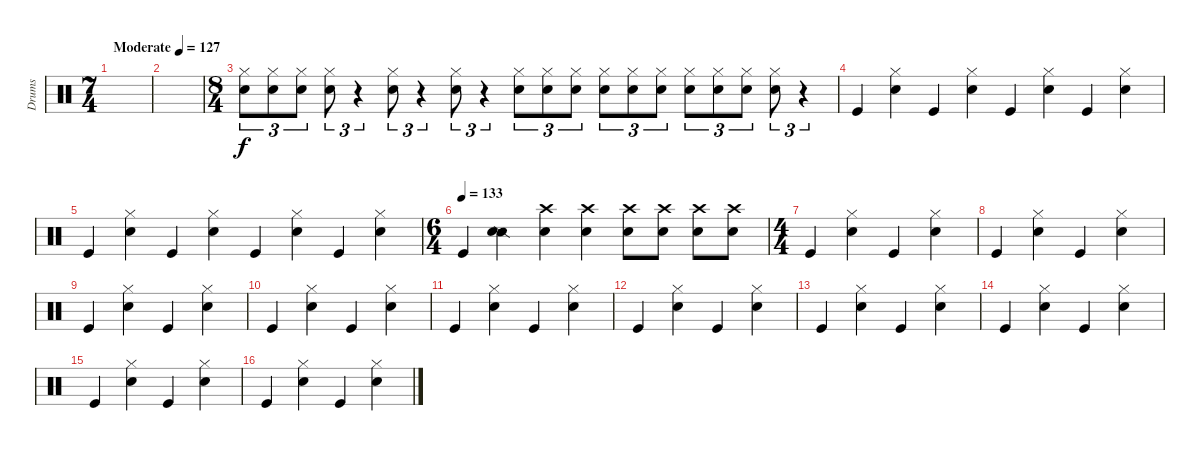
\track ("Drums" "Drums") {instrument percussion}
\staff {score}
\articulation defaults
\ts (7 4)
\tempo (127 "Moderate")
\clef neutral
\ks c
|
|
\ts (8 4)
("Hi-Hat (closed)" "Snare (hit) 2").8{tu (3 2)} ("Hi-Hat (closed)" "Snare (hit) 2").8{tu (3 2)} ("Hi-Hat (closed)" "Snare (hit) 2").8{tu (3 2)} ("Hi-Hat (closed)" "Snare (hit) 2").8{tu (3 2)} r.4{tu (3 2)} ("Hi-Hat (closed)" "Snare (hit) 2").8{tu (3 2)} r.4{tu (3 2)} ("Hi-Hat (closed)" "Snare (hit) 2").8{tu (3 2)} r.4{tu (3 2)} ("Hi-Hat (closed)" "Snare (hit) 2").8{tu (3 2)} ("Hi-Hat (closed)" "Snare (hit) 2").8{tu (3 2)} ("Hi-Hat (closed)" "Snare (hit) 2").8{tu (3 2)} ("Hi-Hat (closed)" "Snare (hit) 2").8{tu (3 2)} ("Hi-Hat (closed)" "Snare (hit) 2").8{tu (3 2)} ("Hi-Hat (closed)" "Snare (hit) 2").8{tu (3 2)} ("Hi-Hat (closed)" "Snare (hit) 2").8{tu (3 2)} ("Hi-Hat (closed)" "Snare (hit) 2").8{tu (3 2)} ("Hi-Hat (closed)" "Snare (hit) 2").8{tu (3 2)} ("Hi-Hat (closed)" "Snare (hit) 2").8{tu (3 2)} r.4{tu (3 2)} |
"Kick (hit)".4 ("Hi-Hat (closed)" "Snare (hit) 2").4 "Kick (hit)".4 ("Hi-Hat (closed)" "Snare (hit) 2").4 "Kick (hit)".4 ("Hi-Hat (closed)" "Snare (hit) 2").4 "Kick (hit)".4 ("Hi-Hat (closed)" "Snare (hit) 2").4 |
"Kick (hit)".4 ("Hi-Hat (closed)" "Snare (hit) 2").4 "Kick (hit)".4 ("Hi-Hat (closed)" "Snare (hit) 2").4 "Kick (hit)".4 ("Hi-Hat (closed)" "Snare (hit) 2").4 "Kick (hit)".4 ("Hi-Hat (closed)" "Snare (hit) 2").4 |
\ts (6 4)
\tempo (133)
"Kick (hit)".4 ("Snare (side stick) 2" "Snare (hit) 2").4 ("Crash high (hit)" "Snare (hit) 2").4 ("Crash high (hit)" "Snare (hit) 2").4 ("Crash high (hit)" "Snare (hit) 2").8 ("Crash high (hit)" "Snare (hit) 2").8 ("Crash high (hit)" "Snare (hit) 2").8 ("Crash high (hit)" "Snare (hit) 2").8 |
\ts (4 4)
"Kick (hit)".4 ("Hi-Hat (closed)" "Snare (hit) 2").4 "Kick (hit)".4 ("Hi-Hat (closed)" "Snare (hit) 2").4 |
"Kick (hit)".4 ("Hi-Hat (closed)" "Snare (hit) 2").4 "Kick (hit)".4 ("Hi-Hat (closed)" "Snare (hit) 2").4 |
"Kick (hit)".4 ("Hi-Hat (closed)" "Snare (hit) 2").4 "Kick (hit)".4 ("Hi-Hat (closed)" "Snare (hit) 2").4 |
"Kick (hit)".4 ("Hi-Hat (closed)" "Snare (hit) 2").4 "Kick (hit)".4 ("Hi-Hat (closed)" "Snare (hit) 2").4 |
"Kick (hit)".4 ("Hi-Hat (closed)" "Snare (hit) 2").4 "Kick (hit)".4 ("Hi-Hat (closed)" "Snare (hit) 2").4 |
"Kick (hit)".4 ("Hi-Hat (closed)" "Snare (hit) 2").4 "Kick (hit)".4 ("Hi-Hat (closed)" "Snare (hit) 2").4 |
"Kick (hit)".4 ("Hi-Hat (closed)" "Snare (hit) 2").4 "Kick (hit)".4 ("Hi-Hat (closed)" "Snare (hit) 2").4 |
"Kick (hit)".4 ("Hi-Hat (closed)" "Snare (hit) 2").4 "Kick (hit)".4 ("Hi-Hat (closed)" "Snare (hit) 2").4 |
"Kick (hit)".4 ("Hi-Hat (closed)" "Snare (hit) 2").4 "Kick (hit)".4 ("Hi-Hat (closed)" "Snare (hit) 2").4 |
"Kick (hit)".4 ("Hi-Hat (closed)" "Snare (hit) 2").4 "Kick (hit)".4 ("Hi-Hat (closed)" "Snare (hit) 2").4
